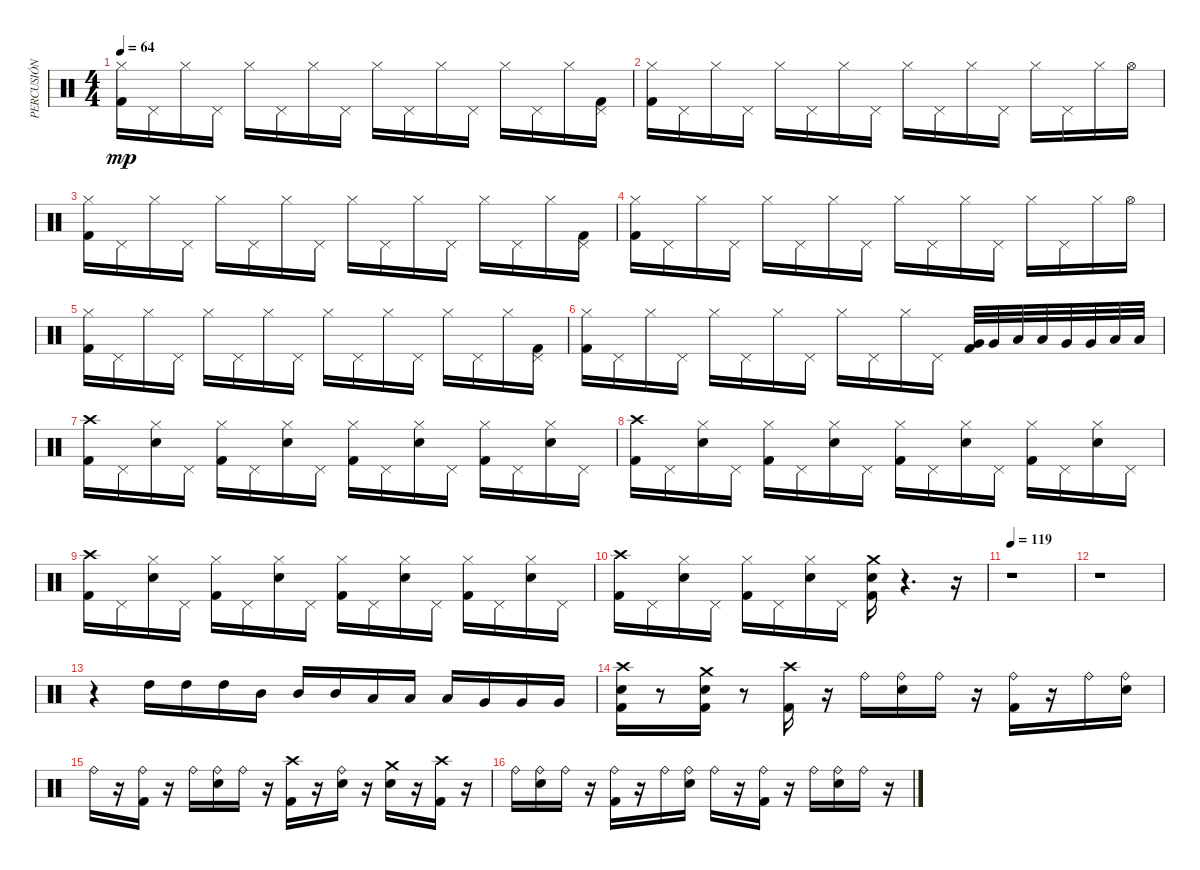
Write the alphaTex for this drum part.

\track ("PERCUSIÓN" "PERCUSIÓN") {instrument percussion}
\staff {score}
\articulation defaults
\ts (4 4)
\tempo 64
\clef neutral
\ks c
("Kick (hit) 2" "Hi-Hat (closed)").16{dy mp} "Pedal Hi-Hat (hit)".16 "Hi-Hat (closed)".16 "Pedal Hi-Hat (hit)".16 "Hi-Hat (closed)".16 "Pedal Hi-Hat (hit)".16 "Hi-Hat (closed)".16 "Pedal Hi-Hat (hit)".16 "Hi-Hat (closed)".16 "Pedal Hi-Hat (hit)".16 "Hi-Hat (closed)".16 "Pedal Hi-Hat (hit)".16 "Hi-Hat (closed)".16 "Pedal Hi-Hat (hit)".16 "Hi-Hat (closed)".16 ("Pedal Hi-Hat (hit)" "Kick (hit) 2").16 |
("Kick (hit) 2" "Hi-Hat (closed)").16 "Pedal Hi-Hat (hit)".16 "Hi-Hat (closed)".16 "Pedal Hi-Hat (hit)".16 "Hi-Hat (closed)".16 "Pedal Hi-Hat (hit)".16 "Hi-Hat (closed)".16 "Pedal Hi-Hat (hit)".16 "Hi-Hat (closed)".16 "Pedal Hi-Hat (hit)".16 "Hi-Hat (closed)".16 "Pedal Hi-Hat (hit)".16 "Hi-Hat (closed)".16 "Pedal Hi-Hat (hit)".16 "Hi-Hat (closed)".16 "Hi-Hat (open)".16 |
("Kick (hit) 2" "Hi-Hat (closed)").16 "Pedal Hi-Hat (hit)".16 "Hi-Hat (closed)".16 "Pedal Hi-Hat (hit)".16 "Hi-Hat (closed)".16 "Pedal Hi-Hat (hit)".16 "Hi-Hat (closed)".16 "Pedal Hi-Hat (hit)".16 "Hi-Hat (closed)".16 "Pedal Hi-Hat (hit)".16 "Hi-Hat (closed)".16 "Pedal Hi-Hat (hit)".16 "Hi-Hat (closed)".16 "Pedal Hi-Hat (hit)".16 "Hi-Hat (closed)".16 ("Pedal Hi-Hat (hit)" "Kick (hit) 2").16 |
("Kick (hit) 2" "Hi-Hat (closed)").16 "Pedal Hi-Hat (hit)".16 "Hi-Hat (closed)".16 "Pedal Hi-Hat (hit)".16 "Hi-Hat (closed)".16 "Pedal Hi-Hat (hit)".16 "Hi-Hat (closed)".16 "Pedal Hi-Hat (hit)".16 "Hi-Hat (closed)".16 "Pedal Hi-Hat (hit)".16 "Hi-Hat (closed)".16 "Pedal Hi-Hat (hit)".16 "Hi-Hat (closed)".16 "Pedal Hi-Hat (hit)".16 "Hi-Hat (closed)".16 "Hi-Hat (open)".16 |
("Kick (hit) 2" "Hi-Hat (closed)").16 "Pedal Hi-Hat (hit)".16 "Hi-Hat (closed)".16 "Pedal Hi-Hat (hit)".16 "Hi-Hat (closed)".16 "Pedal Hi-Hat (hit)".16 "Hi-Hat (closed)".16 "Pedal Hi-Hat (hit)".16 "Hi-Hat (closed)".16 "Pedal Hi-Hat (hit)".16 "Hi-Hat (closed)".16 "Pedal Hi-Hat (hit)".16 "Hi-Hat (closed)".16 "Pedal Hi-Hat (hit)".16 "Hi-Hat (closed)".16 ("Pedal Hi-Hat (hit)" "Kick (hit) 2").16 |
("Kick (hit) 2" "Hi-Hat (closed)").16 "Pedal Hi-Hat (hit)".16 "Hi-Hat (closed)".16 "Pedal Hi-Hat (hit)".16 "Hi-Hat (closed)".16 "Pedal Hi-Hat (hit)".16 "Hi-Hat (closed)".16 "Pedal Hi-Hat (hit)".16 "Hi-Hat (closed)".16 "Pedal Hi-Hat (hit)".16 "Hi-Hat (closed)".16 "Pedal Hi-Hat (hit)".16 ("Kick (hit) 2" "Very Low Tom (hit)").32 "Very Low Tom (hit)".32 "Low Tom (hit)".32 "Low Tom (hit)".32 "Very Low Tom (hit)".32 "Very Low Tom (hit)".32 "Low Floor Tom (hit)".32 "Low Floor Tom (hit)".32 |
("Kick (hit) 2" "Crash high (hit)").16 "Pedal Hi-Hat (hit)".16 ("Hi-Hat (closed)" "Snare (hit) 2").16 "Pedal Hi-Hat (hit)".16 ("Hi-Hat (closed)" "Kick (hit) 2").16 "Pedal Hi-Hat (hit)".16 ("Hi-Hat (closed)" "Snare (hit) 2").16 "Pedal Hi-Hat (hit)".16 ("Hi-Hat (closed)" "Kick (hit) 2").16 "Pedal Hi-Hat (hit)".16 ("Hi-Hat (closed)" "Snare (hit) 2").16 "Pedal Hi-Hat (hit)".16 ("Hi-Hat (closed)" "Kick (hit) 2").16 "Pedal Hi-Hat (hit)".16 ("Hi-Hat (closed)" "Snare (hit) 2").16 "Pedal Hi-Hat (hit)".16 |
("Crash high (hit)" "Kick (hit) 2").16 "Pedal Hi-Hat (hit)".16 ("Hi-Hat (closed)" "Snare (hit) 2").16 "Pedal Hi-Hat (hit)".16 ("Hi-Hat (closed)" "Kick (hit) 2").16 "Pedal Hi-Hat (hit)".16 ("Hi-Hat (closed)" "Snare (hit) 2").16 "Pedal Hi-Hat (hit)".16 ("Hi-Hat (closed)" "Kick (hit) 2").16 "Pedal Hi-Hat (hit)".16 ("Hi-Hat (closed)" "Snare (hit) 2").16 "Pedal Hi-Hat (hit)".16 ("Hi-Hat (closed)" "Kick (hit) 2").16 "Pedal Hi-Hat (hit)".16 ("Hi-Hat (closed)" "Snare (hit) 2").16 "Pedal Hi-Hat (hit)".16 |
("Crash high (hit)" "Kick (hit) 2").16 "Pedal Hi-Hat (hit)".16 ("Hi-Hat (closed)" "Snare (hit) 2").16 "Pedal Hi-Hat (hit)".16 ("Hi-Hat (closed)" "Kick (hit) 2").16 "Pedal Hi-Hat (hit)".16 ("Hi-Hat (closed)" "Snare (hit) 2").16 "Pedal Hi-Hat (hit)".16 ("Hi-Hat (closed)" "Kick (hit) 2").16 "Pedal Hi-Hat (hit)".16 ("Hi-Hat (closed)" "Snare (hit) 2").16 "Pedal Hi-Hat (hit)".16 ("Hi-Hat (closed)" "Kick (hit) 2").16 "Pedal Hi-Hat (hit)".16 ("Hi-Hat (closed)" "Snare (hit) 2").16 "Pedal Hi-Hat (hit)".16 |
("Crash high (hit)" "Kick (hit) 2").16 "Pedal Hi-Hat (hit)".16 ("Hi-Hat (closed)" "Snare (hit) 2").16 "Pedal Hi-Hat (hit)".16 ("Hi-Hat (closed)" "Kick (hit) 2").16 "Pedal Hi-Hat (hit)".16 ("Hi-Hat (closed)" "Snare (hit) 2").16 "Pedal Hi-Hat (hit)".16 ("Kick (hit) 2" "Snare (hit) 2" "Crash medium (hit)").16 r.4{d} r.16 |
\tempo 119
r.1 |
r.1 |
r.4 "High Tom (hit)".16 "High Tom (hit)".16 "High Tom (hit)".16 "Mid Tom (hit)".16 "Mid Tom (hit)".16 "Mid Tom (hit)".16 "Low Tom (hit)".16 "Low Tom (hit)".16 "Low Tom (hit)".16 "Very Low Tom (hit)".16 "Very Low Tom (hit)".16 "Very Low Tom (hit)".16 |
("Snare (hit) 2" "Kick (hit) 2" "Crash high (hit)").16 r.8 ("Snare (hit) 2" "Kick (hit) 2" "Crash medium (hit)").16 r.8 ("Kick (hit) 2" "Crash high (hit)").16 r.16 "Ride (bell)".16 ("Snare (hit) 2" "Ride (bell)").16 "Ride (bell)".16 r.16 ("Kick (hit) 2" "Ride (bell)").16 r.16 "Ride (bell)".16 ("Ride (bell)" "Snare (hit) 2").16 |
"Ride (bell)".16 r.16 ("Ride (bell)" "Kick (hit) 2").16 r.16 "Ride (bell)".16 ("Ride (bell)" "Snare (hit) 2").16 "Ride (bell)".16 r.16 ("Kick (hit) 2" "Crash high (hit)").16 r.16 ("Snare (hit) 2" "Ride (bell)").16 r.16 ("Snare (hit) 2" "Crash medium (hit)").16 r.16 ("Kick (hit) 2" "Crash high (hit)").16 r.16 |
"Ride (bell)".16 ("Snare (hit) 2" "Ride (bell)").16 "Ride (bell)".16 r.16 ("Kick (hit) 2" "Ride (bell)").16 r.16 "Ride (bell)".16 ("Ride (bell)" "Snare (hit) 2").16 "Ride (bell)".16 r.16 ("Ride (bell)" "Kick (hit) 2").16 r.16 "Ride (bell)".16 ("Ride (bell)" "Snare (hit) 2").16 "Ride (bell)".16 r.16
